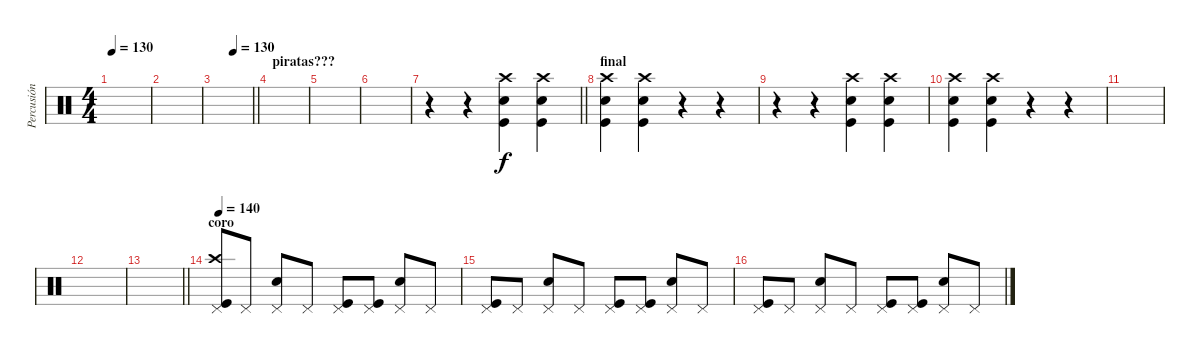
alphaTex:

\track ("Percusión" "Percusión") {instrument percussion}
\staff {score}
\articulation defaults
\ts (4 4)
\tempo 130
\clef neutral
\ks c
|
|
\tempo (130 0.5)
\barLineRight lightlight
|
\section ("" "piratas???")
|
|
|
\barLineRight lightlight
r.4 r.4 ("Kick (hit)" "Snare (hit) 2" "Crash high (hit)").4 ("Snare (hit) 2" "Kick (hit)" "Crash high (hit)").4 |
\section ("" "final")
("Kick (hit)" "Snare (hit) 2" "Crash high (hit)").4 ("Snare (hit) 2" "Kick (hit)" "Crash high (hit)").4 r.4 r.4 |
r.4 r.4 ("Kick (hit)" "Snare (hit) 2" "Crash high (hit)").4 ("Snare (hit) 2" "Kick (hit)" "Crash high (hit)").4 |
("Kick (hit)" "Snare (hit) 2" "Crash high (hit)").4 ("Snare (hit) 2" "Kick (hit)" "Crash high (hit)").4 r.4 r.4 |
|
|
\barLineRight lightlight
|
\section ("" "coro")
\tempo 140
("Crash high (hit)" "Kick (hit)" "Pedal Hi-Hat (hit)").8 "Pedal Hi-Hat (hit)".8 ("Snare (hit) 2" "Pedal Hi-Hat (hit)").8 "Pedal Hi-Hat (hit)".8 ("Kick (hit)" "Pedal Hi-Hat (hit)").8 ("Kick (hit)" "Pedal Hi-Hat (hit)").8 ("Snare (hit) 2" "Pedal Hi-Hat (hit)").8 "Pedal Hi-Hat (hit)".8 |
("Kick (hit)" "Pedal Hi-Hat (hit)").8 "Pedal Hi-Hat (hit)".8 ("Snare (hit) 2" "Pedal Hi-Hat (hit)").8 "Pedal Hi-Hat (hit)".8 ("Kick (hit)" "Pedal Hi-Hat (hit)").8 ("Kick (hit)" "Pedal Hi-Hat (hit)").8 ("Snare (hit) 2" "Pedal Hi-Hat (hit)").8 "Pedal Hi-Hat (hit)".8 |
("Kick (hit)" "Pedal Hi-Hat (hit)").8 "Pedal Hi-Hat (hit)".8 ("Snare (hit) 2" "Pedal Hi-Hat (hit)").8 "Pedal Hi-Hat (hit)".8 ("Kick (hit)" "Pedal Hi-Hat (hit)").8 ("Kick (hit)" "Pedal Hi-Hat (hit)").8 ("Snare (hit) 2" "Pedal Hi-Hat (hit)").8 "Pedal Hi-Hat (hit)".8
